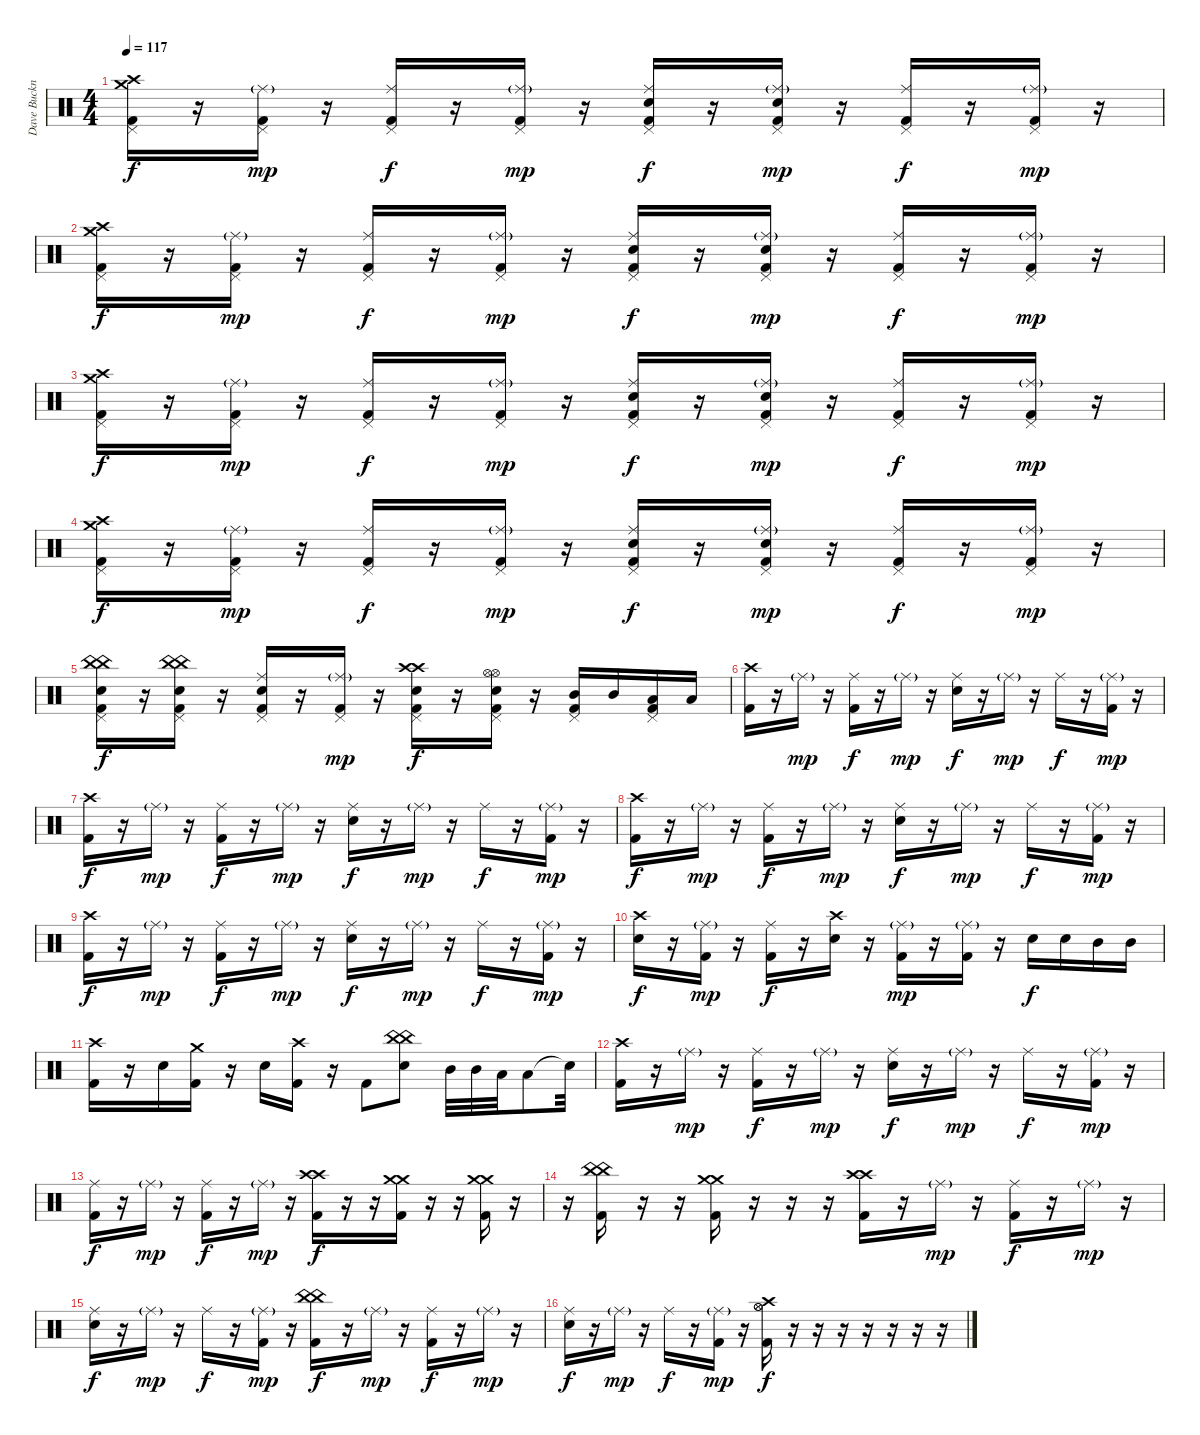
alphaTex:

\track ("Dave Buckner RULZ!!! (Drums)" "Dave Buckn") {instrument percussion}
\staff {score}
\articulation defaults
\ts (4 4)
\tempo 117
\clef neutral
\ks c
("Crash high (hit)" "Crash medium (hit)" "Pedal Hi-Hat (hit)" "Kick (hit) 2").16{dy f} r.16 ("Ride (middle)"{g} "Pedal Hi-Hat (hit)" "Kick (hit) 2").16{dy mp} r.16 ("Ride (middle)" "Pedal Hi-Hat (hit)" "Kick (hit) 2").16{dy f} r.16 ("Ride (middle)"{g} "Pedal Hi-Hat (hit)" "Kick (hit) 2").16{dy mp} r.16 ("Ride (middle)" "Electric Snare (hit)" "Pedal Hi-Hat (hit)" "Kick (hit) 2").16{dy f} r.16 ("Ride (middle)"{g} "Electric Snare (hit)" "Pedal Hi-Hat (hit)" "Kick (hit) 2").16{dy mp} r.16 ("Ride (middle)" "Pedal Hi-Hat (hit)" "Kick (hit) 2").16{dy f} r.16 ("Ride (middle)"{g} "Pedal Hi-Hat (hit)" "Kick (hit) 2").16{dy mp} r.16 |
("Crash high (hit)" "Crash medium (hit)" "Pedal Hi-Hat (hit)" "Kick (hit) 2").16{dy f} r.16 ("Ride (middle)"{g} "Pedal Hi-Hat (hit)" "Kick (hit) 2").16{dy mp} r.16 ("Ride (middle)" "Pedal Hi-Hat (hit)" "Kick (hit) 2").16{dy f} r.16 ("Ride (middle)"{g} "Pedal Hi-Hat (hit)" "Kick (hit) 2").16{dy mp} r.16 ("Ride (middle)" "Electric Snare (hit)" "Pedal Hi-Hat (hit)" "Kick (hit) 2").16{dy f} r.16 ("Ride (middle)"{g} "Electric Snare (hit)" "Pedal Hi-Hat (hit)" "Kick (hit) 2").16{dy mp} r.16 ("Ride (middle)" "Pedal Hi-Hat (hit)" "Kick (hit) 2").16{dy f} r.16 ("Ride (middle)"{g} "Pedal Hi-Hat (hit)" "Kick (hit) 2").16{dy mp} r.16 |
("Crash high (hit)" "Crash medium (hit)" "Pedal Hi-Hat (hit)" "Kick (hit) 2").16{dy f} r.16 ("Ride (middle)"{g} "Pedal Hi-Hat (hit)" "Kick (hit) 2").16{dy mp} r.16 ("Ride (middle)" "Pedal Hi-Hat (hit)" "Kick (hit) 2").16{dy f} r.16 ("Ride (middle)"{g} "Pedal Hi-Hat (hit)" "Kick (hit) 2").16{dy mp} r.16 ("Ride (middle)" "Electric Snare (hit)" "Pedal Hi-Hat (hit)" "Kick (hit) 2").16{dy f} r.16 ("Ride (middle)"{g} "Electric Snare (hit)" "Pedal Hi-Hat (hit)" "Kick (hit) 2").16{dy mp} r.16 ("Ride (middle)" "Pedal Hi-Hat (hit)" "Kick (hit) 2").16{dy f} r.16 ("Ride (middle)"{g} "Pedal Hi-Hat (hit)" "Kick (hit) 2").16{dy mp} r.16 |
("Crash high (hit)" "Crash medium (hit)" "Pedal Hi-Hat (hit)" "Kick (hit) 2").16{dy f} r.16 ("Ride (middle)"{g} "Pedal Hi-Hat (hit)" "Kick (hit) 2").16{dy mp} r.16 ("Ride (middle)" "Pedal Hi-Hat (hit)" "Kick (hit) 2").16{dy f} r.16 ("Ride (middle)"{g} "Pedal Hi-Hat (hit)" "Kick (hit) 2").16{dy mp} r.16 ("Ride (middle)" "Electric Snare (hit)" "Pedal Hi-Hat (hit)" "Kick (hit) 2").16{dy f} r.16 ("Ride (middle)"{g} "Electric Snare (hit)" "Pedal Hi-Hat (hit)" "Kick (hit) 2").16{dy mp} r.16 ("Ride (middle)" "Pedal Hi-Hat (hit)" "Kick (hit) 2").16{dy f} r.16 ("Ride (middle)"{g} "Pedal Hi-Hat (hit)" "Kick (hit) 2").16{dy mp} r.16 |
("China (hit)" "China (hit)" "Electric Snare (hit)" "Pedal Hi-Hat (hit)" "Kick (hit) 2").16{dy f} r.16 ("China (hit)" "China (hit)" "Electric Snare (hit)" "Pedal Hi-Hat (hit)" "Kick (hit) 2").16 r.16 ("Ride (middle)" "Electric Snare (hit)" "Pedal Hi-Hat (hit)" "Kick (hit) 2").16 r.16 ("Ride (middle)"{g} "Pedal Hi-Hat (hit)" "Kick (hit) 2").16{dy mp} r.16 ("Crash high (hit)" "Crash high (hit)" "Electric Snare (hit)" "Pedal Hi-Hat (hit)" "Kick (hit) 2").16{dy f} r.16 ("Hi-Hat (open)" "Hi-Hat (open)" "Electric Snare (hit)" "Pedal Hi-Hat (hit)" "Kick (hit) 2").16 r.16 ("Mid Tom (hit)" "Pedal Hi-Hat (hit)" "Kick (hit) 2").16 "Mid Tom (hit)".16 ("Low Tom (hit)" "Pedal Hi-Hat (hit)" "Kick (hit) 2").16 "Low Tom (hit)".16 |
("Crash high (hit)" "Kick (hit) 2").16 r.16 "Ride (middle)"{g}.16{dy mp} r.16 ("Ride (middle)" "Kick (hit) 2").16{dy f} r.16 "Ride (middle)"{g}.16{dy mp} r.16 ("Ride (middle)" "Electric Snare (hit)").16{dy f} r.16 "Ride (middle)"{g}.16{dy mp} r.16 "Ride (middle)".16{dy f} r.16 ("Ride (middle)"{g} "Kick (hit) 2").16{dy mp} r.16 |
("Crash high (hit)" "Kick (hit) 2").16{dy f} r.16 "Ride (middle)"{g}.16{dy mp} r.16 ("Ride (middle)" "Kick (hit) 2").16{dy f} r.16 "Ride (middle)"{g}.16{dy mp} r.16 ("Ride (middle)" "Electric Snare (hit)").16{dy f} r.16 "Ride (middle)"{g}.16{dy mp} r.16 "Ride (middle)".16{dy f} r.16 ("Ride (middle)"{g} "Kick (hit) 2").16{dy mp} r.16 |
("Crash high (hit)" "Kick (hit) 2").16{dy f} r.16 "Ride (middle)"{g}.16{dy mp} r.16 ("Ride (middle)" "Kick (hit) 2").16{dy f} r.16 "Ride (middle)"{g}.16{dy mp} r.16 ("Ride (middle)" "Electric Snare (hit)").16{dy f} r.16 "Ride (middle)"{g}.16{dy mp} r.16 "Ride (middle)".16{dy f} r.16 ("Ride (middle)"{g} "Kick (hit) 2").16{dy mp} r.16 |
("Crash high (hit)" "Kick (hit) 2").16{dy f} r.16 "Ride (middle)"{g}.16{dy mp} r.16 ("Ride (middle)" "Kick (hit) 2").16{dy f} r.16 "Ride (middle)"{g}.16{dy mp} r.16 ("Ride (middle)" "Electric Snare (hit)").16{dy f} r.16 "Ride (middle)"{g}.16{dy mp} r.16 "Ride (middle)".16{dy f} r.16 ("Ride (middle)"{g} "Kick (hit) 2").16{dy mp} r.16 |
("Crash high (hit)" "Electric Snare (hit)").16{dy f} r.16 ("Ride (middle)"{g} "Kick (hit) 2").16{dy mp} r.16 ("Ride (middle)" "Kick (hit) 2").16{dy f} r.16 ("Crash high (hit)" "Electric Snare (hit)").16 r.16 ("Ride (middle)"{g} "Kick (hit) 2").16{dy mp} r.16 ("Ride (middle)"{g} "Kick (hit) 2").16 r.16 "Electric Snare (hit)".16{dy f} "Electric Snare (hit)".16 "Mid Tom (hit)".16 "Mid Tom (hit)".16 |
("Crash high (hit)" "Kick (hit) 2").16 r.16 "Electric Snare (hit)".16 ("Crash medium (hit)" "Kick (hit) 2").16 r.16 "Electric Snare (hit)".16 ("Crash high (hit)" "Kick (hit) 2").16 r.16 "Kick (hit) 2".8 ("China (hit)" "China (hit)" "Electric Snare (hit)").8 "Mid Tom (hit)".32 "Mid Tom (hit)".32 "Low Tom (hit)".32 "Low Tom (hit)".8 "Snare (hit)"{t}.32 |
("Crash high (hit)" "Kick (hit) 2").16 r.16 "Ride (middle)"{g}.16{dy mp} r.16 ("Ride (middle)" "Kick (hit) 2").16{dy f} r.16 "Ride (middle)"{g}.16{dy mp} r.16 ("Ride (middle)" "Electric Snare (hit)").16{dy f} r.16 "Ride (middle)"{g}.16{dy mp} r.16 "Ride (middle)".16{dy f} r.16 ("Ride (middle)"{g} "Kick (hit) 2").16{dy mp} r.16 |
("Ride (middle)" "Kick (hit) 2").16{dy f} r.16 "Ride (middle)"{g}.16{dy mp} r.16 ("Ride (middle)" "Kick (hit) 2").16{dy f} r.16 "Ride (middle)"{g}.16{dy mp} r.16 ("Crash high (hit)" "Crash high (hit)" "Kick (hit) 2").16{dy f} r.16 r.16 ("Crash medium (hit)" "Crash medium (hit)" "Kick (hit) 2").16 r.16 r.16 ("Crash medium (hit)" "Crash medium (hit)" "Kick (hit) 2").16 r.16 |
r.16 ("China (hit)" "China (hit)" "Kick (hit) 2").16 r.16 r.16 ("Crash medium (hit)" "Crash medium (hit)" "Kick (hit) 2").16 r.16 r.16 r.16 ("Crash high (hit)" "Crash high (hit)" "Kick (hit) 2").16 r.16 "Ride (middle)"{g}.16{dy mp} r.16 ("Ride (middle)" "Kick (hit) 2").16{dy f} r.16 "Ride (middle)"{g}.16{dy mp} r.16 |
("Ride (middle)" "Electric Snare (hit)").16{dy f} r.16 "Ride (middle)"{g}.16{dy mp} r.16 "Ride (middle)".16{dy f} r.16 ("Ride (middle)"{g} "Kick (hit) 2").16{dy mp} r.16 ("China (hit)" "China (hit)" "Kick (hit) 2").16{dy f} r.16 "Ride (middle)"{g}.16{dy mp} r.16 ("Ride (middle)" "Kick (hit) 2").16{dy f} r.16 "Ride (middle)"{g}.16{dy mp} r.16 |
("Ride (middle)" "Electric Snare (hit)").16{dy f} r.16 "Ride (middle)"{g}.16{dy mp} r.16 "Ride (middle)".16{dy f} r.16 ("Ride (middle)"{g} "Kick (hit) 2").16{dy mp} r.16 ("Crash high (hit)" "Hi-Hat (open)" "Hi-Hat (open)" "Kick (hit) 2").16{dy f} r.16 r.16 r.16 r.16 r.16 r.16 r.16
